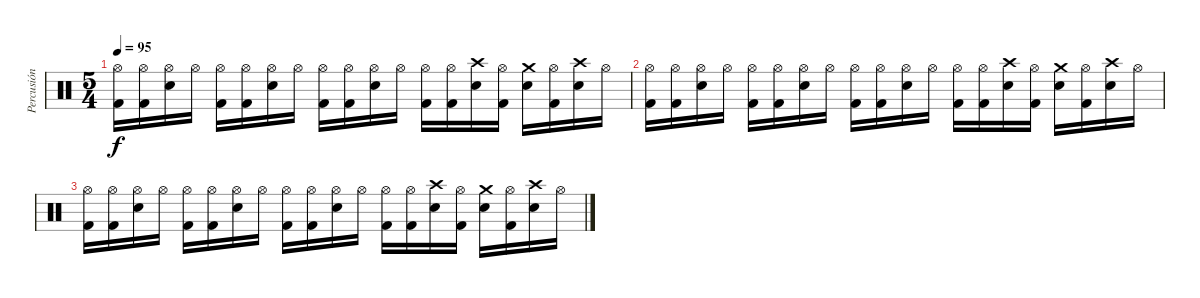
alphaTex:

\track ("Percusión" "Percusión") {instrument percussion}
\staff {score}
\articulation defaults
\ts (5 4)
\tempo 95
\clef neutral
\ks c
("Hi-Hat (open)" "Kick (hit) 2").16{dy f} ("Hi-Hat (open)" "Kick (hit) 2").16 ("Hi-Hat (open)" "Electric Snare (hit)").16 "Hi-Hat (open)".16 ("Hi-Hat (open)" "Kick (hit) 2").16 ("Hi-Hat (open)" "Kick (hit) 2").16 ("Hi-Hat (open)" "Electric Snare (hit)").16 "Hi-Hat (open)".16 ("Hi-Hat (open)" "Kick (hit) 2").16 ("Hi-Hat (open)" "Kick (hit) 2").16 ("Hi-Hat (open)" "Electric Snare (hit)").16 "Hi-Hat (open)".16 ("Hi-Hat (open)" "Kick (hit) 2").16 ("Hi-Hat (open)" "Kick (hit) 2").16 ("Crash high (hit)" "Electric Snare (hit)").16 ("Hi-Hat (open)" "Kick (hit) 2").16 ("Crash medium (hit)" "Electric Snare (hit)").16 ("Hi-Hat (open)" "Kick (hit) 2").16 ("Crash high (hit)" "Electric Snare (hit)").16 "Hi-Hat (open)".16 |
("Hi-Hat (open)" "Kick (hit) 2").16 ("Hi-Hat (open)" "Kick (hit) 2").16 ("Hi-Hat (open)" "Electric Snare (hit)").16 "Hi-Hat (open)".16 ("Hi-Hat (open)" "Kick (hit) 2").16 ("Hi-Hat (open)" "Kick (hit) 2").16 ("Hi-Hat (open)" "Electric Snare (hit)").16 "Hi-Hat (open)".16 ("Hi-Hat (open)" "Kick (hit) 2").16 ("Hi-Hat (open)" "Kick (hit) 2").16 ("Hi-Hat (open)" "Electric Snare (hit)").16 "Hi-Hat (open)".16 ("Hi-Hat (open)" "Kick (hit) 2").16 ("Hi-Hat (open)" "Kick (hit) 2").16 ("Crash high (hit)" "Electric Snare (hit)").16 ("Hi-Hat (open)" "Kick (hit) 2").16 ("Crash medium (hit)" "Electric Snare (hit)").16 ("Hi-Hat (open)" "Kick (hit) 2").16 ("Crash high (hit)" "Electric Snare (hit)").16 "Hi-Hat (open)".16 |
("Hi-Hat (open)" "Kick (hit) 2").16 ("Hi-Hat (open)" "Kick (hit) 2").16 ("Hi-Hat (open)" "Electric Snare (hit)").16 "Hi-Hat (open)".16 ("Hi-Hat (open)" "Kick (hit) 2").16 ("Hi-Hat (open)" "Kick (hit) 2").16 ("Hi-Hat (open)" "Electric Snare (hit)").16 "Hi-Hat (open)".16 ("Hi-Hat (open)" "Kick (hit) 2").16 ("Hi-Hat (open)" "Kick (hit) 2").16 ("Hi-Hat (open)" "Electric Snare (hit)").16 "Hi-Hat (open)".16 ("Hi-Hat (open)" "Kick (hit) 2").16 ("Hi-Hat (open)" "Kick (hit) 2").16 ("Crash high (hit)" "Electric Snare (hit)").16 ("Hi-Hat (open)" "Kick (hit) 2").16 ("Crash medium (hit)" "Electric Snare (hit)").16 ("Hi-Hat (open)" "Kick (hit) 2").16 ("Crash high (hit)" "Electric Snare (hit)").16 "Hi-Hat (open)".16
